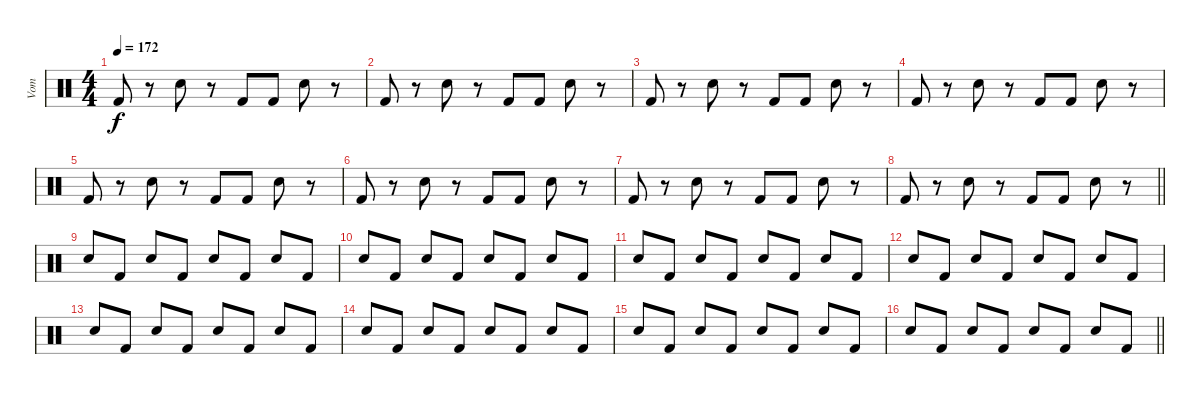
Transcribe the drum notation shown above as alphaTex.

\track ("Vom" "Vom") {instrument percussion}
\staff {score}
\articulation defaults
\ts (4 4)
\tempo 172
\clef neutral
\ks c "Kick (hit) 2".8{dy f}
r.8 "Snare (hit) 2".8 r.8 "Kick (hit) 2".8 "Kick (hit) 2".8 "Snare (hit) 2".8 r.8 |
"Kick (hit) 2".8 r.8 "Snare (hit) 2".8 r.8 "Kick (hit) 2".8 "Kick (hit) 2".8 "Snare (hit) 2".8 r.8 |
"Kick (hit) 2".8 r.8 "Snare (hit) 2".8 r.8 "Kick (hit) 2".8 "Kick (hit) 2".8 "Snare (hit) 2".8 r.8 |
"Kick (hit) 2".8 r.8 "Snare (hit) 2".8 r.8 "Kick (hit) 2".8 "Kick (hit) 2".8 "Snare (hit) 2".8 r.8 |
"Kick (hit) 2".8 r.8 "Snare (hit) 2".8 r.8 "Kick (hit) 2".8 "Kick (hit) 2".8 "Snare (hit) 2".8 r.8 |
"Kick (hit) 2".8 r.8 "Snare (hit) 2".8 r.8 "Kick (hit) 2".8 "Kick (hit) 2".8 "Snare (hit) 2".8 r.8 |
"Kick (hit) 2".8 r.8 "Snare (hit) 2".8 r.8 "Kick (hit) 2".8 "Kick (hit) 2".8 "Snare (hit) 2".8 r.8 |
\barLineRight lightlight "Kick (hit) 2".8
r.8 "Snare (hit) 2".8 r.8 "Kick (hit) 2".8 "Kick (hit) 2".8 "Snare (hit) 2".8 r.8 |
"Snare (hit) 2".8 "Kick (hit) 2".8 "Snare (hit) 2".8 "Kick (hit) 2".8 "Snare (hit) 2".8 "Kick (hit) 2".8 "Snare (hit) 2".8 "Kick (hit) 2".8 |
"Snare (hit) 2".8 "Kick (hit) 2".8 "Snare (hit) 2".8 "Kick (hit) 2".8 "Snare (hit) 2".8 "Kick (hit) 2".8 "Snare (hit) 2".8 "Kick (hit) 2".8 |
"Snare (hit) 2".8 "Kick (hit) 2".8 "Snare (hit) 2".8 "Kick (hit) 2".8 "Snare (hit) 2".8 "Kick (hit) 2".8 "Snare (hit) 2".8 "Kick (hit) 2".8 |
"Snare (hit) 2".8 "Kick (hit) 2".8 "Snare (hit) 2".8 "Kick (hit) 2".8 "Snare (hit) 2".8 "Kick (hit) 2".8 "Snare (hit) 2".8 "Kick (hit) 2".8 |
"Snare (hit) 2".8 "Kick (hit) 2".8 "Snare (hit) 2".8 "Kick (hit) 2".8 "Snare (hit) 2".8 "Kick (hit) 2".8 "Snare (hit) 2".8 "Kick (hit) 2".8 |
"Snare (hit) 2".8 "Kick (hit) 2".8 "Snare (hit) 2".8 "Kick (hit) 2".8 "Snare (hit) 2".8 "Kick (hit) 2".8 "Snare (hit) 2".8 "Kick (hit) 2".8 |
"Snare (hit) 2".8 "Kick (hit) 2".8 "Snare (hit) 2".8 "Kick (hit) 2".8 "Snare (hit) 2".8 "Kick (hit) 2".8 "Snare (hit) 2".8 "Kick (hit) 2".8 |
\barLineRight lightlight "Snare (hit) 2".8 "Kick (hit) 2".8 "Snare (hit) 2".8 "Kick (hit) 2".8 "Snare (hit) 2".8 "Kick (hit) 2".8 "Snare (hit) 2".8 "Kick (hit) 2".8
